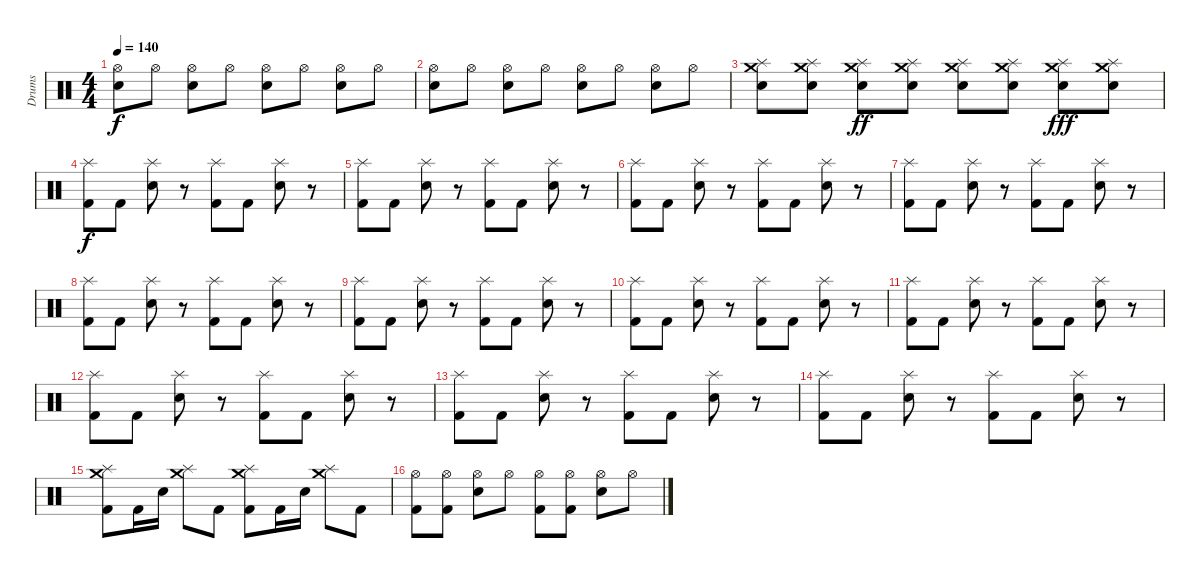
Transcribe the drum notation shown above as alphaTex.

\track ("Drums" "Drums") {instrument percussion}
\staff {score}
\articulation defaults
\ts (4 4)
\tempo 140
\clef neutral
\ks c
("Snare (hit) 2" "Hi-Hat (open)").8{dy f} "Hi-Hat (open)".8 ("Snare (hit) 2" "Hi-Hat (open)").8 "Hi-Hat (open)".8 ("Snare (hit) 2" "Hi-Hat (open)").8 "Hi-Hat (open)".8 ("Snare (hit) 2" "Hi-Hat (open)").8 "Hi-Hat (open)".8 |
("Snare (hit) 2" "Hi-Hat (open)").8 "Hi-Hat (open)".8 ("Snare (hit) 2" "Hi-Hat (open)").8 "Hi-Hat (open)".8 ("Snare (hit) 2" "Hi-Hat (open)").8 "Hi-Hat (open)".8 ("Snare (hit) 2" "Hi-Hat (open)").8 "Hi-Hat (open)".8 |
("Snare (hit) 2" "Splash (hit)" "Crash medium (hit)").8 ("Snare (hit) 2" "Splash (hit)" "Crash medium (hit)").8 ("Snare (hit) 2" "Splash (hit)" "Crash medium (hit)").8{dy ff} ("Snare (hit) 2" "Splash (hit)" "Crash medium (hit)").8 ("Snare (hit) 2" "Splash (hit)" "Crash medium (hit)").8 ("Snare (hit) 2" "Splash (hit)" "Crash medium (hit)").8 ("Snare (hit) 2" "Splash (hit)" "Crash medium (hit)").8{dy fff} ("Snare (hit) 2" "Splash (hit)" "Crash medium (hit)").8 |
("Splash (hit)" "Kick (hit) 2").8{dy f} "Kick (hit) 2".8 ("Splash (hit)" "Snare (hit) 2").8 r.8 ("Splash (hit)" "Kick (hit) 2").8 "Kick (hit) 2".8 ("Splash (hit)" "Snare (hit) 2").8 r.8 |
("Splash (hit)" "Kick (hit) 2").8 "Kick (hit) 2".8 ("Splash (hit)" "Snare (hit) 2").8 r.8 ("Splash (hit)" "Kick (hit) 2").8 "Kick (hit) 2".8 ("Splash (hit)" "Snare (hit) 2").8 r.8 |
("Splash (hit)" "Kick (hit) 2").8 "Kick (hit) 2".8 ("Splash (hit)" "Snare (hit) 2").8 r.8 ("Splash (hit)" "Kick (hit) 2").8 "Kick (hit) 2".8 ("Splash (hit)" "Snare (hit) 2").8 r.8 |
("Splash (hit)" "Kick (hit) 2").8 "Kick (hit) 2".8 ("Splash (hit)" "Snare (hit) 2").8 r.8 ("Splash (hit)" "Kick (hit) 2").8 "Kick (hit) 2".8 ("Splash (hit)" "Snare (hit) 2").8 r.8 |
("Splash (hit)" "Kick (hit) 2").8 "Kick (hit) 2".8 ("Splash (hit)" "Snare (hit) 2").8 r.8 ("Splash (hit)" "Kick (hit) 2").8 "Kick (hit) 2".8 ("Splash (hit)" "Snare (hit) 2").8 r.8 |
("Splash (hit)" "Kick (hit) 2").8 "Kick (hit) 2".8 ("Splash (hit)" "Snare (hit) 2").8 r.8 ("Splash (hit)" "Kick (hit) 2").8 "Kick (hit) 2".8 ("Splash (hit)" "Snare (hit) 2").8 r.8 |
("Splash (hit)" "Kick (hit) 2").8 "Kick (hit) 2".8 ("Splash (hit)" "Snare (hit) 2").8 r.8 ("Splash (hit)" "Kick (hit) 2").8 "Kick (hit) 2".8 ("Splash (hit)" "Snare (hit) 2").8 r.8 |
("Splash (hit)" "Kick (hit) 2").8 "Kick (hit) 2".8 ("Splash (hit)" "Snare (hit) 2").8 r.8 ("Splash (hit)" "Kick (hit) 2").8 "Kick (hit) 2".8 ("Splash (hit)" "Snare (hit) 2").8 r.8 |
("Splash (hit)" "Kick (hit) 2").8 "Kick (hit) 2".8 ("Splash (hit)" "Snare (hit) 2").8 r.8 ("Splash (hit)" "Kick (hit) 2").8 "Kick (hit) 2".8 ("Splash (hit)" "Snare (hit) 2").8 r.8 |
("Splash (hit)" "Kick (hit) 2").8 "Kick (hit) 2".8 ("Splash (hit)" "Snare (hit) 2").8 r.8 ("Splash (hit)" "Kick (hit) 2").8 "Kick (hit) 2".8 ("Splash (hit)" "Snare (hit) 2").8 r.8 |
("Splash (hit)" "Kick (hit) 2").8 "Kick (hit) 2".8 ("Splash (hit)" "Snare (hit) 2").8 r.8 ("Splash (hit)" "Kick (hit) 2").8 "Kick (hit) 2".8 ("Splash (hit)" "Snare (hit) 2").8 r.8 |
("Splash (hit)" "Kick (hit) 2" "Crash medium (hit)").8 "Kick (hit) 2".16 "Snare (hit) 2".16 ("Splash (hit)" "Crash medium (hit)").8 "Kick (hit) 2".8 ("Kick (hit) 2" "Splash (hit)" "Crash medium (hit)").8 "Kick (hit) 2".16 "Snare (hit) 2".16 ("Splash (hit)" "Crash medium (hit)").8 "Kick (hit) 2".8 |
("Kick (hit) 2" "Hi-Hat (open)").8 ("Kick (hit) 2" "Hi-Hat (open)").8 ("Snare (hit) 2" "Hi-Hat (open)").8 "Hi-Hat (open)".8 ("Kick (hit) 2" "Hi-Hat (open)").8 ("Kick (hit) 2" "Hi-Hat (open)").8 ("Snare (hit) 2" "Hi-Hat (open)").8 "Hi-Hat (open)".8
